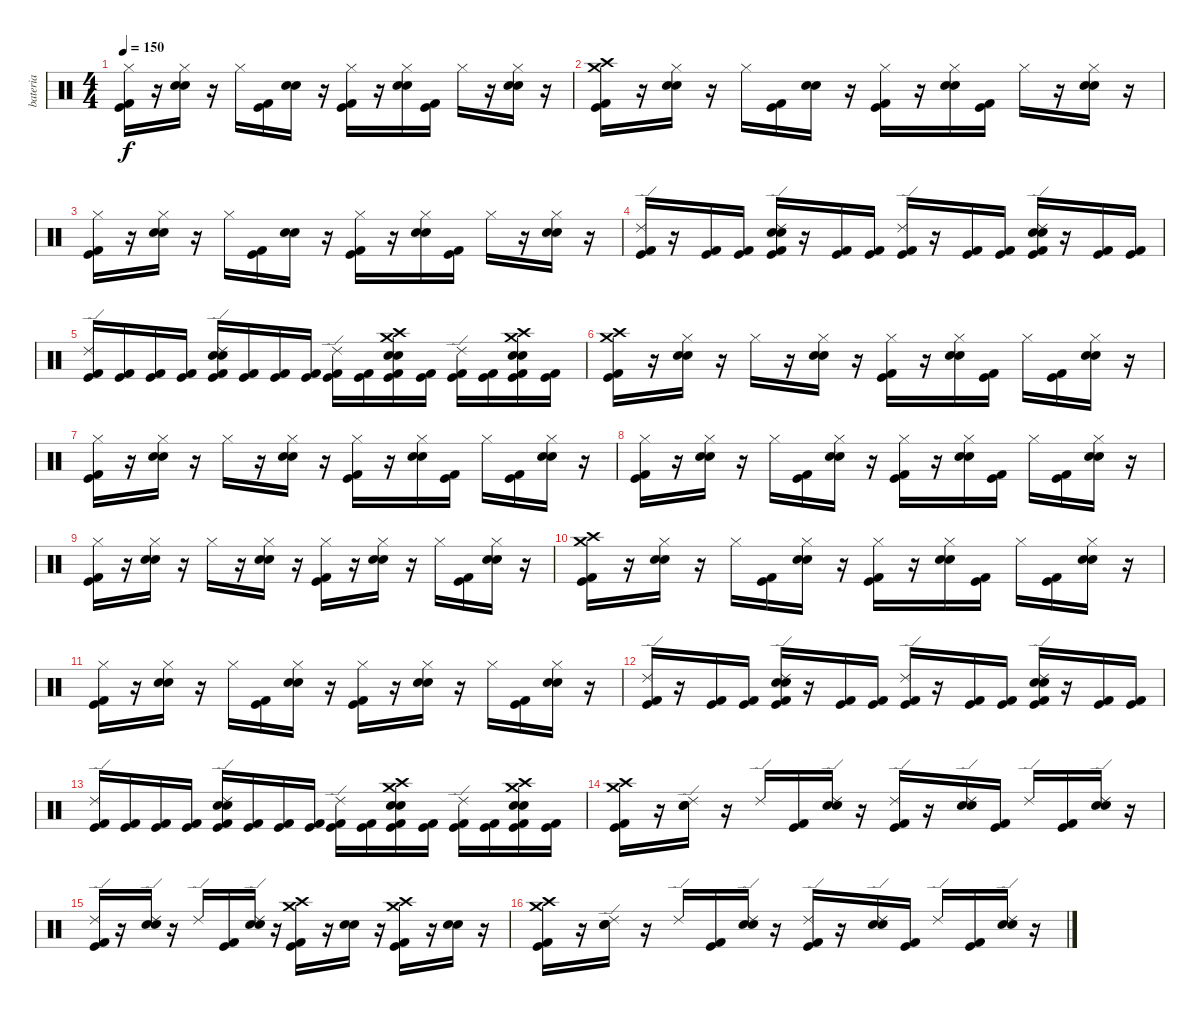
\track ("bateria" "bateria") {instrument percussion}
\staff {score}
\articulation defaults
\ts (4 4)
\tempo 150
\clef neutral
\ks c
("Hi-Hat (closed)" "Kick (hit) 2" "Kick (hit)").16{dy f} r.16 ("Hi-Hat (closed)" "Electric Snare (hit)" "Snare (hit) 2").16 r.16 "Hi-Hat (closed)".16 ("Kick (hit) 2" "Kick (hit)").16 ("Electric Snare (hit)" "Snare (hit) 2").16 r.16 ("Hi-Hat (closed)" "Kick (hit) 2" "Kick (hit)").16 r.16 ("Hi-Hat (closed)" "Electric Snare (hit)" "Snare (hit) 2").16 ("Kick (hit) 2" "Kick (hit)").16 "Hi-Hat (closed)".16 r.16 ("Hi-Hat (closed)" "Electric Snare (hit)" "Snare (hit) 2").16 r.16 |
("Crash medium (hit)" "Crash high (hit)" "Kick (hit) 2" "Kick (hit)").16 r.16 ("Hi-Hat (closed)" "Electric Snare (hit)" "Snare (hit) 2").16 r.16 "Hi-Hat (closed)".16 ("Kick (hit) 2" "Kick (hit)").16 ("Electric Snare (hit)" "Snare (hit) 2").16 r.16 ("Hi-Hat (closed)" "Kick (hit) 2" "Kick (hit)").16 r.16 ("Hi-Hat (closed)" "Electric Snare (hit)" "Snare (hit) 2").16 ("Kick (hit) 2" "Kick (hit)").16 "Hi-Hat (closed)".16 r.16 ("Hi-Hat (closed)" "Electric Snare (hit)" "Snare (hit) 2").16 r.16 |
("Hi-Hat (closed)" "Kick (hit) 2" "Kick (hit)").16 r.16 ("Hi-Hat (closed)" "Electric Snare (hit)" "Snare (hit) 2").16 r.16 "Hi-Hat (closed)".16 ("Kick (hit) 2" "Kick (hit)").16 ("Electric Snare (hit)" "Snare (hit) 2").16 r.16 ("Hi-Hat (closed)" "Kick (hit) 2" "Kick (hit)").16 r.16 ("Hi-Hat (closed)" "Electric Snare (hit)" "Snare (hit) 2").16 ("Kick (hit) 2" "Kick (hit)").16 "Hi-Hat (closed)".16 r.16 ("Hi-Hat (closed)" "Electric Snare (hit)" "Snare (hit) 2").16 r.16 |
("Ride (edge) 2" "Kick (hit) 2" "Kick (hit)").16 r.16 ("Kick (hit) 2" "Kick (hit)").16 ("Kick (hit) 2" "Kick (hit)").16 ("Electric Snare (hit)" "Snare (hit) 2" "Ride (edge) 2" "Kick (hit) 2" "Kick (hit)").16 r.16 ("Kick (hit) 2" "Kick (hit)").16 ("Kick (hit) 2" "Kick (hit)").16 ("Ride (edge) 2" "Kick (hit) 2" "Kick (hit)").16 r.16 ("Kick (hit) 2" "Kick (hit)").16 ("Kick (hit) 2" "Kick (hit)").16 ("Electric Snare (hit)" "Snare (hit) 2" "Ride (edge) 2" "Kick (hit) 2" "Kick (hit)").16 r.16 ("Kick (hit) 2" "Kick (hit)").16 ("Kick (hit) 2" "Kick (hit)").16 |
("Ride (edge) 2" "Kick (hit) 2" "Kick (hit)").16 ("Kick (hit) 2" "Kick (hit)").16 ("Kick (hit) 2" "Kick (hit)").16 ("Kick (hit) 2" "Kick (hit)").16 ("Electric Snare (hit)" "Snare (hit) 2" "Ride (edge) 2" "Kick (hit) 2" "Kick (hit)").16 ("Kick (hit) 2" "Kick (hit)").16 ("Kick (hit) 2" "Kick (hit)").16 ("Kick (hit) 2" "Kick (hit)").16 ("Ride (edge) 2" "Kick (hit) 2" "Kick (hit)").16 ("Kick (hit) 2" "Kick (hit)").16 ("Crash high (hit)" "Electric Snare (hit)" "Snare (hit) 2" "Crash medium (hit)" "Kick (hit) 2" "Kick (hit)").16 ("Kick (hit) 2" "Kick (hit)").16 ("Ride (edge) 2" "Kick (hit) 2" "Kick (hit)").16 ("Kick (hit) 2" "Kick (hit)").16 ("Electric Snare (hit)" "Snare (hit) 2" "Crash high (hit)" "Crash medium (hit)" "Kick (hit) 2" "Kick (hit)").16 ("Kick (hit) 2" "Kick (hit)").16 |
("Crash high (hit)" "Crash medium (hit)" "Kick (hit) 2" "Kick (hit)").16 r.16 ("Hi-Hat (closed)" "Electric Snare (hit)" "Snare (hit) 2").16 r.16 "Hi-Hat (closed)".16 r.16 ("Hi-Hat (closed)" "Electric Snare (hit)" "Snare (hit) 2").16 r.16 ("Hi-Hat (closed)" "Kick (hit) 2" "Kick (hit)").16 r.16 ("Hi-Hat (closed)" "Electric Snare (hit)" "Snare (hit) 2").16 ("Kick (hit) 2" "Kick (hit)").16 "Hi-Hat (closed)".16 ("Kick (hit) 2" "Kick (hit)").16 ("Hi-Hat (closed)" "Electric Snare (hit)" "Snare (hit) 2").16 r.16 |
("Hi-Hat (closed)" "Kick (hit) 2" "Kick (hit)").16 r.16 ("Hi-Hat (closed)" "Electric Snare (hit)" "Snare (hit) 2").16 r.16 "Hi-Hat (closed)".16 r.16 ("Electric Snare (hit)" "Hi-Hat (closed)" "Snare (hit) 2").16 r.16 ("Hi-Hat (closed)" "Kick (hit) 2" "Kick (hit)").16 r.16 ("Hi-Hat (closed)" "Electric Snare (hit)" "Snare (hit) 2").16 ("Kick (hit) 2" "Kick (hit)").16 "Hi-Hat (closed)".16 ("Kick (hit) 2" "Kick (hit)").16 ("Hi-Hat (closed)" "Electric Snare (hit)" "Snare (hit) 2").16 r.16 |
("Hi-Hat (closed)" "Kick (hit) 2" "Kick (hit)").16 r.16 ("Hi-Hat (closed)" "Electric Snare (hit)" "Snare (hit) 2").16 r.16 "Hi-Hat (closed)".16 ("Kick (hit) 2" "Kick (hit)").16 ("Electric Snare (hit)" "Hi-Hat (closed)" "Snare (hit) 2").16 r.16 ("Hi-Hat (closed)" "Kick (hit) 2" "Kick (hit)").16 r.16 ("Hi-Hat (closed)" "Electric Snare (hit)" "Snare (hit) 2").16 ("Kick (hit) 2" "Kick (hit)").16 "Hi-Hat (closed)".16 ("Kick (hit) 2" "Kick (hit)").16 ("Hi-Hat (closed)" "Electric Snare (hit)" "Snare (hit) 2").16 r.16 |
("Hi-Hat (closed)" "Kick (hit) 2" "Kick (hit)").16 r.16 ("Hi-Hat (closed)" "Electric Snare (hit)" "Snare (hit) 2").16 r.16 "Hi-Hat (closed)".16 r.16 ("Electric Snare (hit)" "Hi-Hat (closed)" "Snare (hit) 2").16 r.16 ("Hi-Hat (closed)" "Kick (hit) 2" "Kick (hit)").16 r.16 ("Hi-Hat (closed)" "Electric Snare (hit)" "Snare (hit) 2").16 r.16 "Hi-Hat (closed)".16 ("Kick (hit) 2" "Kick (hit)").16 ("Hi-Hat (closed)" "Electric Snare (hit)" "Snare (hit) 2").16 r.16 |
("Crash medium (hit)" "Crash high (hit)" "Kick (hit) 2" "Kick (hit)").16 r.16 ("Hi-Hat (closed)" "Electric Snare (hit)" "Snare (hit) 2").16 r.16 "Hi-Hat (closed)".16 ("Kick (hit) 2" "Kick (hit)").16 ("Electric Snare (hit)" "Hi-Hat (closed)" "Snare (hit) 2").16 r.16 ("Hi-Hat (closed)" "Kick (hit) 2" "Kick (hit)").16 r.16 ("Hi-Hat (closed)" "Electric Snare (hit)" "Snare (hit) 2").16 ("Kick (hit) 2" "Kick (hit)").16 "Hi-Hat (closed)".16 ("Kick (hit) 2" "Kick (hit)").16 ("Hi-Hat (closed)" "Electric Snare (hit)" "Snare (hit) 2").16 r.16 |
("Hi-Hat (closed)" "Kick (hit) 2" "Kick (hit)").16 r.16 ("Hi-Hat (closed)" "Electric Snare (hit)" "Snare (hit) 2").16 r.16 "Hi-Hat (closed)".16 ("Kick (hit) 2" "Kick (hit)").16 ("Electric Snare (hit)" "Hi-Hat (closed)" "Snare (hit) 2").16 r.16 ("Hi-Hat (closed)" "Kick (hit) 2" "Kick (hit)").16 r.16 ("Hi-Hat (closed)" "Electric Snare (hit)" "Snare (hit) 2").16 r.16 "Hi-Hat (closed)".16 ("Kick (hit) 2" "Kick (hit)").16 ("Hi-Hat (closed)" "Electric Snare (hit)" "Snare (hit) 2").16 r.16 |
("Ride (edge) 2" "Kick (hit) 2" "Kick (hit)").16 r.16 ("Kick (hit) 2" "Kick (hit)").16 ("Kick (hit) 2" "Kick (hit)").16 ("Electric Snare (hit)" "Snare (hit) 2" "Ride (edge) 2" "Kick (hit) 2" "Kick (hit)").16 r.16 ("Kick (hit) 2" "Kick (hit)").16 ("Kick (hit) 2" "Kick (hit)").16 ("Ride (edge) 2" "Kick (hit) 2" "Kick (hit)").16 r.16 ("Kick (hit) 2" "Kick (hit)").16 ("Kick (hit) 2" "Kick (hit)").16 ("Electric Snare (hit)" "Snare (hit) 2" "Ride (edge) 2" "Kick (hit) 2" "Kick (hit)").16 r.16 ("Kick (hit) 2" "Kick (hit)").16 ("Kick (hit) 2" "Kick (hit)").16 |
("Ride (edge) 2" "Kick (hit) 2" "Kick (hit)").16 ("Kick (hit) 2" "Kick (hit)").16 ("Kick (hit) 2" "Kick (hit)").16 ("Kick (hit) 2" "Kick (hit)").16 ("Electric Snare (hit)" "Snare (hit) 2" "Ride (edge) 2" "Kick (hit) 2" "Kick (hit)").16 ("Kick (hit) 2" "Kick (hit)").16 ("Kick (hit) 2" "Kick (hit)").16 ("Kick (hit) 2" "Kick (hit)").16 ("Ride (edge) 2" "Kick (hit) 2" "Kick (hit)").16 ("Kick (hit) 2" "Kick (hit)").16 ("Crash high (hit)" "Electric Snare (hit)" "Snare (hit) 2" "Crash medium (hit)" "Kick (hit) 2" "Kick (hit)").16 ("Kick (hit) 2" "Kick (hit)").16 ("Ride (edge) 2" "Kick (hit) 2" "Kick (hit)").16 ("Kick (hit) 2" "Kick (hit)").16 ("Electric Snare (hit)" "Snare (hit) 2" "Crash high (hit)" "Crash medium (hit)" "Kick (hit) 2" "Kick (hit)").16 ("Kick (hit) 2" "Kick (hit)").16 |
("Crash high (hit)" "Crash medium (hit)" "Kick (hit) 2" "Kick (hit)").16 r.16 ("Ride (edge) 2" "Electric Snare (hit)" "Snare (hit) 2").16 r.16 "Ride (edge) 2".16 ("Kick (hit) 2" "Kick (hit)").16 ("Ride (edge) 2" "Electric Snare (hit)" "Snare (hit) 2").16 r.16 ("Ride (edge) 2" "Kick (hit) 2" "Kick (hit)").16 r.16 ("Ride (edge) 2" "Electric Snare (hit)" "Snare (hit) 2").16 ("Kick (hit) 2" "Kick (hit)").16 "Ride (edge) 2".16 ("Kick (hit) 2" "Kick (hit)").16 ("Ride (edge) 2" "Electric Snare (hit)" "Snare (hit) 2").16 r.16 |
("Ride (edge) 2" "Kick (hit) 2" "Kick (hit)").16 r.16 ("Ride (edge) 2" "Electric Snare (hit)" "Snare (hit) 2").16 r.16 "Ride (edge) 2".16 ("Kick (hit) 2" "Kick (hit)").16 ("Ride (edge) 2" "Electric Snare (hit)" "Snare (hit) 2").16 r.16 ("Crash high (hit)" "Crash medium (hit)" "Kick (hit) 2" "Kick (hit)").16 r.16 ("Electric Snare (hit)" "Snare (hit) 2").16 r.16 ("Crash high (hit)" "Crash medium (hit)" "Kick (hit)" "Kick (hit) 2").16 r.16 ("Snare (hit) 2" "Electric Snare (hit)").16 r.16 |
("Crash medium (hit)" "Crash high (hit)" "Kick (hit) 2" "Kick (hit)").16 r.16 ("Ride (edge) 2" "Electric Snare (hit)" "Snare (hit) 2").16 r.16 "Ride (edge) 2".16 ("Kick (hit) 2" "Kick (hit)").16 ("Ride (edge) 2" "Electric Snare (hit)" "Snare (hit) 2").16 r.16 ("Ride (edge) 2" "Kick (hit) 2" "Kick (hit)").16 r.16 ("Ride (edge) 2" "Electric Snare (hit)" "Snare (hit) 2").16 ("Kick (hit) 2" "Kick (hit)").16 "Ride (edge) 2".16 ("Kick (hit) 2" "Kick (hit)").16 ("Ride (edge) 2" "Electric Snare (hit)" "Snare (hit) 2").16 r.16
